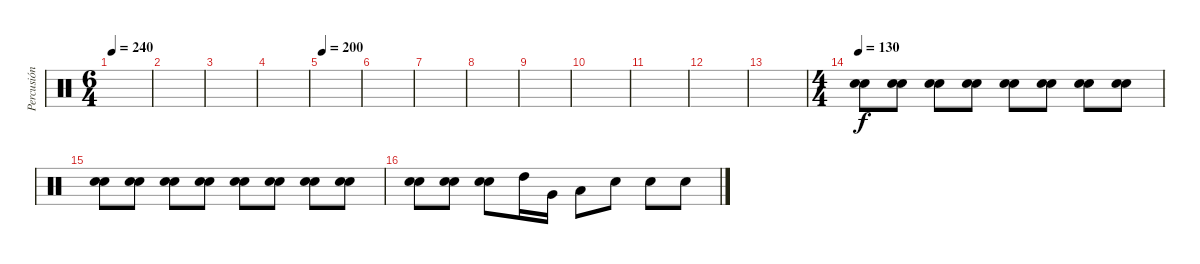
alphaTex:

\track ("Percusión" "Percusión") {instrument percussion}
\staff {score}
\articulation defaults
\ts (6 4)
\tempo 240
\clef neutral
\ks c
|
|
|
|
\tempo 200
|
|
|
|
|
|
|
|
|
\ts (4 4)
\tempo 130
("Electric Snare (hit)" "Snare (hit) 2").8 ("Electric Snare (hit)" "Snare (hit) 2").8 ("Electric Snare (hit)" "Snare (hit) 2").8 ("Electric Snare (hit)" "Snare (hit) 2").8 ("Electric Snare (hit)" "Snare (hit) 2").8 ("Electric Snare (hit)" "Snare (hit) 2").8 ("Electric Snare (hit)" "Snare (hit) 2").8 ("Electric Snare (hit)" "Snare (hit) 2").8 |
("Electric Snare (hit)" "Snare (hit) 2").8 ("Electric Snare (hit)" "Snare (hit) 2").8 ("Electric Snare (hit)" "Snare (hit) 2").8 ("Electric Snare (hit)" "Snare (hit) 2").8 ("Electric Snare (hit)" "Snare (hit) 2").8 ("Electric Snare (hit)" "Snare (hit) 2").8 ("Electric Snare (hit)" "Snare (hit) 2").8 ("Electric Snare (hit)" "Snare (hit) 2").8 |
("Electric Snare (hit)" "Snare (hit) 2").8 ("Electric Snare (hit)" "Snare (hit) 2").8 ("Electric Snare (hit)" "Snare (hit) 2").8 "High Tom (hit)".16 "Very Low Tom (hit)".16 "Low Floor Tom (hit)".8 "Electric Snare (hit)".8 "Electric Snare (hit)".8 "Electric Snare (hit)".8
